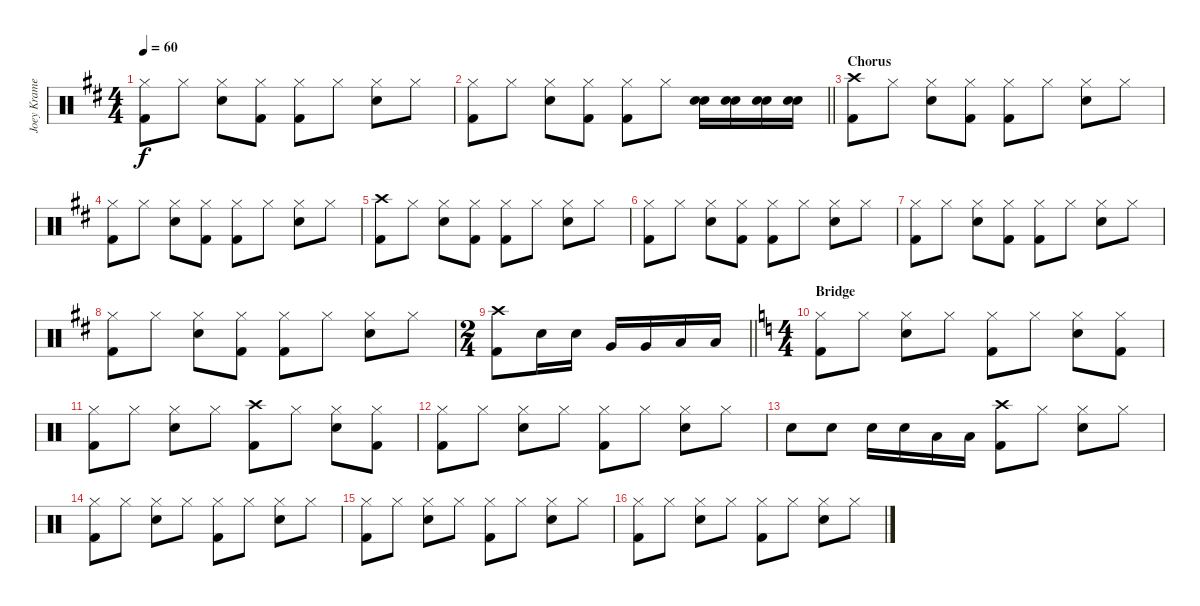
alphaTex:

\track ("Joey Kramer" "Joey Krame") {instrument percussion}
\staff {score}
\articulation defaults
\ts (4 4)
\tempo 60
\clef neutral
\ks d
("Hi-Hat (closed)" "Kick (hit) 2").8{dy f} "Hi-Hat (closed)".8 ("Hi-Hat (closed)" "Electric Snare (hit)").8 ("Hi-Hat (closed)" "Kick (hit) 2").8 ("Hi-Hat (closed)" "Kick (hit) 2").8 "Hi-Hat (closed)".8 ("Hi-Hat (closed)" "Electric Snare (hit)").8 "Hi-Hat (closed)".8 |
\barLineRight lightlight
("Hi-Hat (closed)" "Kick (hit) 2").8 "Hi-Hat (closed)".8 ("Hi-Hat (closed)" "Electric Snare (hit)").8 ("Hi-Hat (closed)" "Kick (hit) 2").8 ("Hi-Hat (closed)" "Kick (hit) 2").8 "Hi-Hat (closed)".8 ("Electric Snare (hit)" "Snare (hit) 2").16 ("Electric Snare (hit)" "Snare (hit) 2").16 ("Electric Snare (hit)" "Snare (hit) 2").16 ("Electric Snare (hit)" "Snare (hit) 2").16 |
\section ("" "Chorus")
("Crash high (hit)" "Kick (hit) 2").8 "Hi-Hat (closed)".8 ("Hi-Hat (closed)" "Electric Snare (hit)").8 ("Hi-Hat (closed)" "Kick (hit) 2").8 ("Hi-Hat (closed)" "Kick (hit) 2").8 "Hi-Hat (closed)".8 ("Hi-Hat (closed)" "Electric Snare (hit)").8 "Hi-Hat (closed)".8 |
("Hi-Hat (closed)" "Kick (hit) 2").8 "Hi-Hat (closed)".8 ("Hi-Hat (closed)" "Electric Snare (hit)").8 ("Hi-Hat (closed)" "Kick (hit) 2").8 ("Hi-Hat (closed)" "Kick (hit) 2").8 "Hi-Hat (closed)".8 ("Hi-Hat (closed)" "Electric Snare (hit)").8 "Hi-Hat (closed)".8 |
("Crash high (hit)" "Kick (hit) 2").8 "Hi-Hat (closed)".8 ("Hi-Hat (closed)" "Electric Snare (hit)").8 ("Hi-Hat (closed)" "Kick (hit) 2").8 ("Hi-Hat (closed)" "Kick (hit) 2").8 "Hi-Hat (closed)".8 ("Hi-Hat (closed)" "Electric Snare (hit)").8 "Hi-Hat (closed)".8 |
("Hi-Hat (closed)" "Kick (hit) 2").8 "Hi-Hat (closed)".8 ("Hi-Hat (closed)" "Electric Snare (hit)").8 ("Hi-Hat (closed)" "Kick (hit) 2").8 ("Hi-Hat (closed)" "Kick (hit) 2").8 "Hi-Hat (closed)".8 ("Hi-Hat (closed)" "Electric Snare (hit)").8 "Hi-Hat (closed)".8 |
("Hi-Hat (closed)" "Kick (hit) 2").8 "Hi-Hat (closed)".8 ("Hi-Hat (closed)" "Electric Snare (hit)").8 ("Hi-Hat (closed)" "Kick (hit) 2").8 ("Hi-Hat (closed)" "Kick (hit) 2").8 "Hi-Hat (closed)".8 ("Hi-Hat (closed)" "Electric Snare (hit)").8 "Hi-Hat (closed)".8 |
("Hi-Hat (closed)" "Kick (hit) 2").8 "Hi-Hat (closed)".8 ("Hi-Hat (closed)" "Electric Snare (hit)").8 ("Hi-Hat (closed)" "Kick (hit) 2").8 ("Hi-Hat (closed)" "Kick (hit) 2").8 "Hi-Hat (closed)".8 ("Hi-Hat (closed)" "Electric Snare (hit)").8 "Hi-Hat (closed)".8 |
\ts (2 4)
\barLineRight lightlight
("Crash high (hit)" "Kick (hit) 2").8 "Electric Snare (hit)".16 "Electric Snare (hit)".16 "Very Low Tom (hit)".16 "Very Low Tom (hit)".16 "Low Floor Tom (hit)".16 "Low Floor Tom (hit)".16 |
\ts (4 4)
\section ("" "Bridge")
\ks c
("Hi-Hat (closed)" "Kick (hit) 2").8 "Hi-Hat (closed)".8 ("Hi-Hat (closed)" "Electric Snare (hit)").8 "Hi-Hat (closed)".8 ("Hi-Hat (closed)" "Kick (hit) 2").8 "Hi-Hat (closed)".8 ("Hi-Hat (closed)" "Electric Snare (hit)").8 ("Hi-Hat (closed)" "Kick (hit) 2").8 |
("Hi-Hat (closed)" "Kick (hit) 2").8 "Hi-Hat (closed)".8 ("Hi-Hat (closed)" "Electric Snare (hit)").8 "Hi-Hat (closed)".8 ("Crash high (hit)" "Kick (hit) 2").8 "Hi-Hat (closed)".8 ("Hi-Hat (closed)" "Electric Snare (hit)").8 ("Hi-Hat (closed)" "Kick (hit) 2").8 |
("Hi-Hat (closed)" "Kick (hit) 2").8 "Hi-Hat (closed)".8 ("Hi-Hat (closed)" "Electric Snare (hit)").8 "Hi-Hat (closed)".8 ("Hi-Hat (closed)" "Kick (hit) 2").8 "Hi-Hat (closed)".8 ("Hi-Hat (closed)" "Electric Snare (hit)").8 "Hi-Hat (closed)".8 |
"Electric Snare (hit)".8 "Electric Snare (hit)".8 "Electric Snare (hit)".16 "Electric Snare (hit)".16 "Low Floor Tom (hit)".16 "Low Floor Tom (hit)".16 ("Crash high (hit)" "Kick (hit) 2").8 "Hi-Hat (closed)".8 ("Hi-Hat (closed)" "Electric Snare (hit)").8 "Hi-Hat (closed)".8 |
("Hi-Hat (closed)" "Kick (hit) 2").8 "Hi-Hat (closed)".8 ("Hi-Hat (closed)" "Electric Snare (hit)").8 "Hi-Hat (closed)".8 ("Hi-Hat (closed)" "Kick (hit) 2").8 "Hi-Hat (closed)".8 ("Hi-Hat (closed)" "Electric Snare (hit)").8 "Hi-Hat (closed)".8 |
("Hi-Hat (closed)" "Kick (hit) 2").8 "Hi-Hat (closed)".8 ("Hi-Hat (closed)" "Electric Snare (hit)").8 "Hi-Hat (closed)".8 ("Hi-Hat (closed)" "Kick (hit) 2").8 "Hi-Hat (closed)".8 ("Hi-Hat (closed)" "Electric Snare (hit)").8 "Hi-Hat (closed)".8 |
("Hi-Hat (closed)" "Kick (hit) 2").8 "Hi-Hat (closed)".8 ("Hi-Hat (closed)" "Electric Snare (hit)").8 "Hi-Hat (closed)".8 ("Hi-Hat (closed)" "Kick (hit) 2").8 "Hi-Hat (closed)".8 ("Hi-Hat (closed)" "Electric Snare (hit)").8 "Hi-Hat (closed)".8
